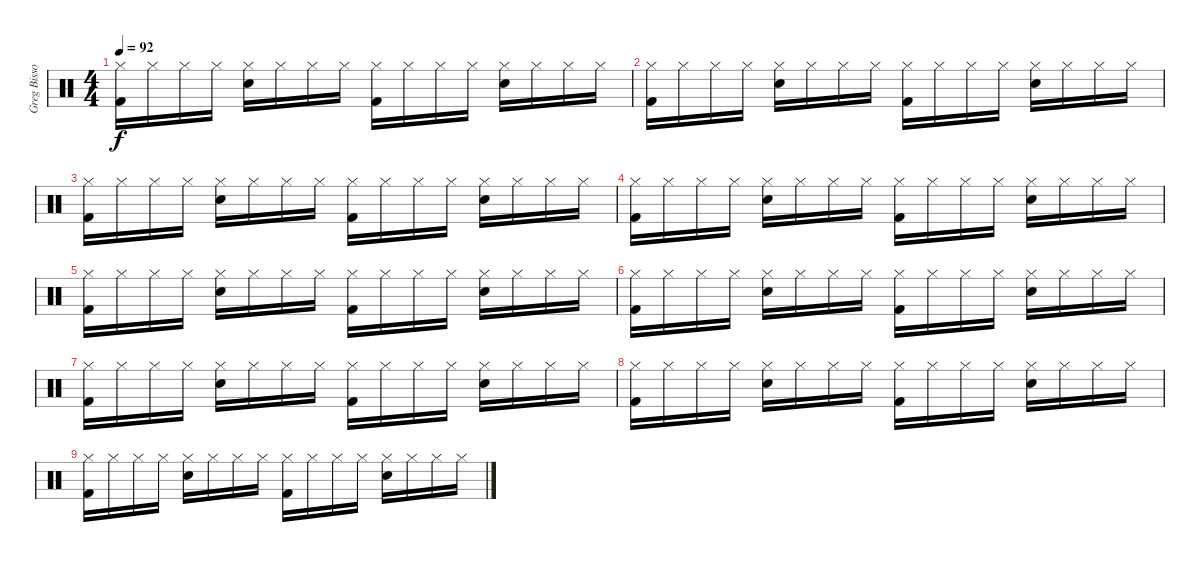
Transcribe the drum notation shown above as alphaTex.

\track ("Greg Bissonette" "Greg Bisso") {instrument percussion}
\staff {score}
\articulation defaults
\ts (4 4)
\tempo 92
\clef neutral
\ks c
("Hi-Hat (closed)" "Kick (hit) 2").16{dy f} "Hi-Hat (closed)".16 "Hi-Hat (closed)".16 "Hi-Hat (closed)".16 ("Hi-Hat (closed)" "Snare (hit) 2").16 "Hi-Hat (closed)".16 "Hi-Hat (closed)".16 "Hi-Hat (closed)".16 ("Hi-Hat (closed)" "Kick (hit) 2").16 "Hi-Hat (closed)".16 "Hi-Hat (closed)".16 "Hi-Hat (closed)".16 ("Hi-Hat (closed)" "Snare (hit) 2").16 "Hi-Hat (closed)".16 "Hi-Hat (closed)".16 "Hi-Hat (closed)".16 |
("Hi-Hat (closed)" "Kick (hit) 2").16 "Hi-Hat (closed)".16 "Hi-Hat (closed)".16 "Hi-Hat (closed)".16 ("Hi-Hat (closed)" "Snare (hit) 2").16 "Hi-Hat (closed)".16 "Hi-Hat (closed)".16 "Hi-Hat (closed)".16 ("Hi-Hat (closed)" "Kick (hit) 2").16 "Hi-Hat (closed)".16 "Hi-Hat (closed)".16 "Hi-Hat (closed)".16 ("Hi-Hat (closed)" "Snare (hit) 2").16 "Hi-Hat (closed)".16 "Hi-Hat (closed)".16 "Hi-Hat (closed)".16 |
("Hi-Hat (closed)" "Kick (hit) 2").16 "Hi-Hat (closed)".16 "Hi-Hat (closed)".16 "Hi-Hat (closed)".16 ("Hi-Hat (closed)" "Snare (hit) 2").16 "Hi-Hat (closed)".16 "Hi-Hat (closed)".16 "Hi-Hat (closed)".16 ("Hi-Hat (closed)" "Kick (hit) 2").16 "Hi-Hat (closed)".16 "Hi-Hat (closed)".16 "Hi-Hat (closed)".16 ("Hi-Hat (closed)" "Snare (hit) 2").16 "Hi-Hat (closed)".16 "Hi-Hat (closed)".16 "Hi-Hat (closed)".16 |
("Hi-Hat (closed)" "Kick (hit) 2").16 "Hi-Hat (closed)".16 "Hi-Hat (closed)".16 "Hi-Hat (closed)".16 ("Hi-Hat (closed)" "Snare (hit) 2").16 "Hi-Hat (closed)".16 "Hi-Hat (closed)".16 "Hi-Hat (closed)".16 ("Hi-Hat (closed)" "Kick (hit) 2").16 "Hi-Hat (closed)".16 "Hi-Hat (closed)".16 "Hi-Hat (closed)".16 ("Hi-Hat (closed)" "Snare (hit) 2").16 "Hi-Hat (closed)".16 "Hi-Hat (closed)".16 "Hi-Hat (closed)".16 |
("Hi-Hat (closed)" "Kick (hit) 2").16 "Hi-Hat (closed)".16 "Hi-Hat (closed)".16 "Hi-Hat (closed)".16 ("Hi-Hat (closed)" "Snare (hit) 2").16 "Hi-Hat (closed)".16 "Hi-Hat (closed)".16 "Hi-Hat (closed)".16 ("Hi-Hat (closed)" "Kick (hit) 2").16 "Hi-Hat (closed)".16 "Hi-Hat (closed)".16 "Hi-Hat (closed)".16 ("Hi-Hat (closed)" "Snare (hit) 2").16 "Hi-Hat (closed)".16 "Hi-Hat (closed)".16 "Hi-Hat (closed)".16 |
("Hi-Hat (closed)" "Kick (hit) 2").16 "Hi-Hat (closed)".16 "Hi-Hat (closed)".16 "Hi-Hat (closed)".16 ("Hi-Hat (closed)" "Snare (hit) 2").16 "Hi-Hat (closed)".16 "Hi-Hat (closed)".16 "Hi-Hat (closed)".16 ("Hi-Hat (closed)" "Kick (hit) 2").16 "Hi-Hat (closed)".16 "Hi-Hat (closed)".16 "Hi-Hat (closed)".16 ("Hi-Hat (closed)" "Snare (hit) 2").16 "Hi-Hat (closed)".16 "Hi-Hat (closed)".16 "Hi-Hat (closed)".16 |
("Hi-Hat (closed)" "Kick (hit) 2").16 "Hi-Hat (closed)".16 "Hi-Hat (closed)".16 "Hi-Hat (closed)".16 ("Hi-Hat (closed)" "Snare (hit) 2").16 "Hi-Hat (closed)".16 "Hi-Hat (closed)".16 "Hi-Hat (closed)".16 ("Hi-Hat (closed)" "Kick (hit) 2").16 "Hi-Hat (closed)".16 "Hi-Hat (closed)".16 "Hi-Hat (closed)".16 ("Hi-Hat (closed)" "Snare (hit) 2").16 "Hi-Hat (closed)".16 "Hi-Hat (closed)".16 "Hi-Hat (closed)".16 |
("Hi-Hat (closed)" "Kick (hit) 2").16 "Hi-Hat (closed)".16 "Hi-Hat (closed)".16 "Hi-Hat (closed)".16 ("Hi-Hat (closed)" "Snare (hit) 2").16 "Hi-Hat (closed)".16 "Hi-Hat (closed)".16 "Hi-Hat (closed)".16 ("Hi-Hat (closed)" "Kick (hit) 2").16 "Hi-Hat (closed)".16 "Hi-Hat (closed)".16 "Hi-Hat (closed)".16 ("Hi-Hat (closed)" "Snare (hit) 2").16 "Hi-Hat (closed)".16 "Hi-Hat (closed)".16 "Hi-Hat (closed)".16 |
("Hi-Hat (closed)" "Kick (hit) 2").16 "Hi-Hat (closed)".16 "Hi-Hat (closed)".16 "Hi-Hat (closed)".16 ("Hi-Hat (closed)" "Snare (hit) 2").16 "Hi-Hat (closed)".16 "Hi-Hat (closed)".16 "Hi-Hat (closed)".16 ("Hi-Hat (closed)" "Kick (hit) 2").16 "Hi-Hat (closed)".16 "Hi-Hat (closed)".16 "Hi-Hat (closed)".16 ("Hi-Hat (closed)" "Snare (hit) 2").16 "Hi-Hat (closed)".16 "Hi-Hat (closed)".16 "Hi-Hat (closed)".16
